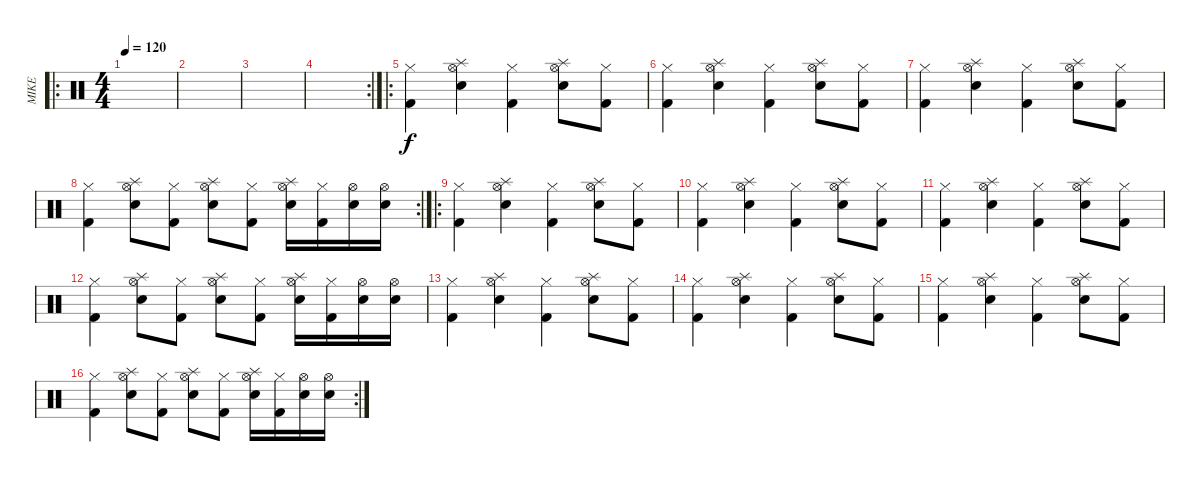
\track ("MIKE" "MIKE") {instrument percussion}
\staff {score}
\articulation defaults
\ro
\ts (4 4)
\tempo 120
\clef neutral
\ks c
|
|
|
\rc 2
|
\ro
("Hi-Hat (closed)" "Kick (hit) 2").4 ("Splash (hit)" "Hi-Hat (open)" "Snare (hit) 2").4 ("Hi-Hat (closed)" "Kick (hit) 2").4 ("Splash (hit)" "Hi-Hat (open)" "Snare (hit) 2").8 ("Hi-Hat (closed)" "Kick (hit) 2").8 |
("Hi-Hat (closed)" "Kick (hit) 2").4 ("Splash (hit)" "Hi-Hat (open)" "Snare (hit) 2").4 ("Hi-Hat (closed)" "Kick (hit) 2").4 ("Splash (hit)" "Hi-Hat (open)" "Snare (hit) 2").8 ("Hi-Hat (closed)" "Kick (hit) 2").8 |
("Hi-Hat (closed)" "Kick (hit) 2").4 ("Splash (hit)" "Hi-Hat (open)" "Snare (hit) 2").4 ("Hi-Hat (closed)" "Kick (hit) 2").4 ("Splash (hit)" "Hi-Hat (open)" "Snare (hit) 2").8 ("Hi-Hat (closed)" "Kick (hit) 2").8 |
\rc 2
("Hi-Hat (closed)" "Kick (hit) 2").4 ("Splash (hit)" "Hi-Hat (open)" "Snare (hit) 2").8 ("Hi-Hat (closed)" "Kick (hit) 2").8 ("Splash (hit)" "Hi-Hat (open)" "Snare (hit) 2").8 ("Hi-Hat (closed)" "Kick (hit) 2").8 ("Splash (hit)" "Hi-Hat (open)" "Snare (hit) 2").16 ("Hi-Hat (closed)" "Kick (hit) 2").16 ("Hi-Hat (open)" "Snare (hit) 2").16 ("Hi-Hat (open)" "Snare (hit) 2").16 |
\ro
("Hi-Hat (closed)" "Kick (hit) 2").4 ("Splash (hit)" "Hi-Hat (open)" "Snare (hit) 2").4 ("Hi-Hat (closed)" "Kick (hit) 2").4 ("Splash (hit)" "Hi-Hat (open)" "Snare (hit) 2").8 ("Hi-Hat (closed)" "Kick (hit) 2").8 |
("Hi-Hat (closed)" "Kick (hit) 2").4 ("Splash (hit)" "Hi-Hat (open)" "Snare (hit) 2").4 ("Hi-Hat (closed)" "Kick (hit) 2").4 ("Splash (hit)" "Hi-Hat (open)" "Snare (hit) 2").8 ("Hi-Hat (closed)" "Kick (hit) 2").8 |
("Hi-Hat (closed)" "Kick (hit) 2").4 ("Splash (hit)" "Hi-Hat (open)" "Snare (hit) 2").4 ("Hi-Hat (closed)" "Kick (hit) 2").4 ("Splash (hit)" "Hi-Hat (open)" "Snare (hit) 2").8 ("Hi-Hat (closed)" "Kick (hit) 2").8 |
("Hi-Hat (closed)" "Kick (hit) 2").4 ("Splash (hit)" "Hi-Hat (open)" "Snare (hit) 2").8 ("Hi-Hat (closed)" "Kick (hit) 2").8 ("Splash (hit)" "Hi-Hat (open)" "Snare (hit) 2").8 ("Hi-Hat (closed)" "Kick (hit) 2").8 ("Splash (hit)" "Hi-Hat (open)" "Snare (hit) 2").16 ("Hi-Hat (closed)" "Kick (hit) 2").16 ("Hi-Hat (open)" "Snare (hit) 2").16 ("Hi-Hat (open)" "Snare (hit) 2").16 |
("Hi-Hat (closed)" "Kick (hit) 2").4 ("Splash (hit)" "Hi-Hat (open)" "Snare (hit) 2").4 ("Hi-Hat (closed)" "Kick (hit) 2").4 ("Splash (hit)" "Hi-Hat (open)" "Snare (hit) 2").8 ("Hi-Hat (closed)" "Kick (hit) 2").8 |
("Hi-Hat (closed)" "Kick (hit) 2").4 ("Splash (hit)" "Hi-Hat (open)" "Snare (hit) 2").4 ("Hi-Hat (closed)" "Kick (hit) 2").4 ("Splash (hit)" "Hi-Hat (open)" "Snare (hit) 2").8 ("Hi-Hat (closed)" "Kick (hit) 2").8 |
("Hi-Hat (closed)" "Kick (hit) 2").4 ("Splash (hit)" "Hi-Hat (open)" "Snare (hit) 2").4 ("Hi-Hat (closed)" "Kick (hit) 2").4 ("Splash (hit)" "Hi-Hat (open)" "Snare (hit) 2").8 ("Hi-Hat (closed)" "Kick (hit) 2").8 |
\rc 2
("Hi-Hat (closed)" "Kick (hit) 2").4 ("Splash (hit)" "Hi-Hat (open)" "Snare (hit) 2").8 ("Hi-Hat (closed)" "Kick (hit) 2").8 ("Splash (hit)" "Hi-Hat (open)" "Snare (hit) 2").8 ("Hi-Hat (closed)" "Kick (hit) 2").8 ("Splash (hit)" "Hi-Hat (open)" "Snare (hit) 2").16 ("Hi-Hat (closed)" "Kick (hit) 2").16 ("Hi-Hat (open)" "Snare (hit) 2").16 ("Hi-Hat (open)" "Snare (hit) 2").16
